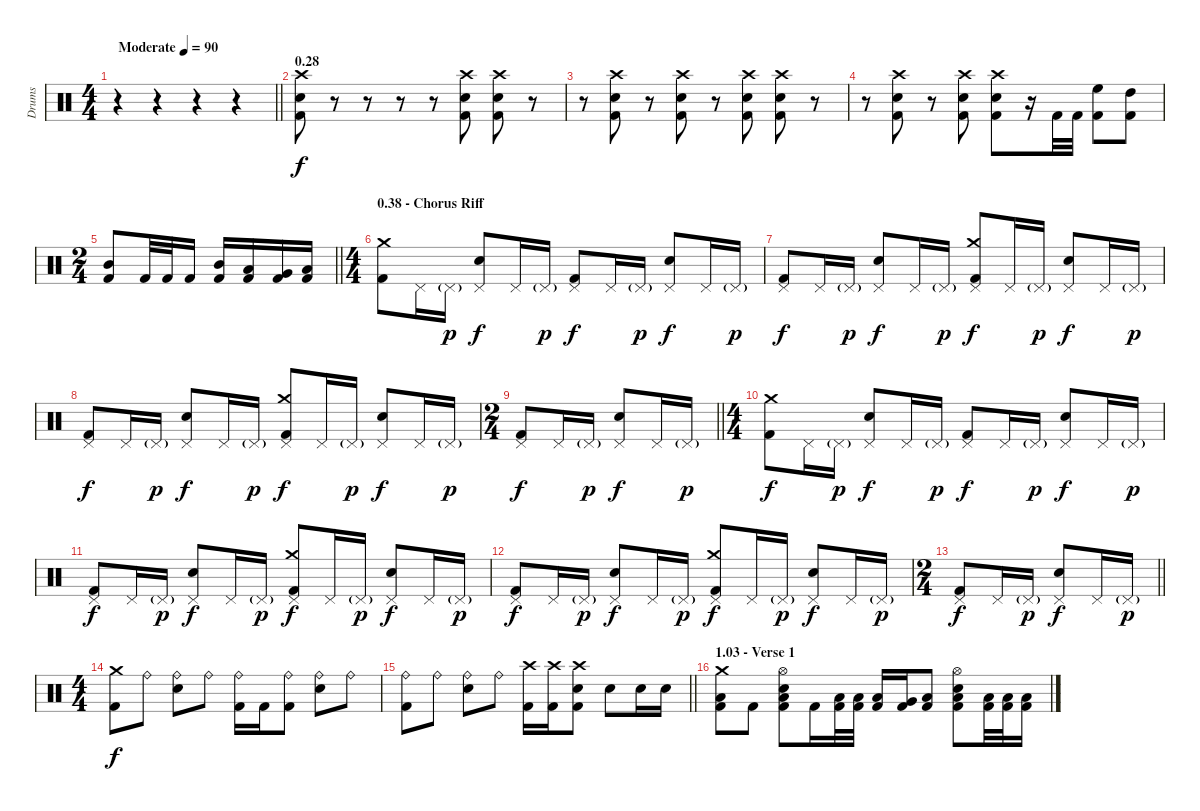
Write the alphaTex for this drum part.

\track ("Drums" "Drums") {instrument percussion}
\staff {score}
\articulation defaults
\ts (4 4)
\tempo (90 "Moderate")
\clef neutral
\barLineRight lightlight
\ks c
r.4{dy f} r.4 r.4 r.4 |
\section ("" "0.28")
("Crash high (hit)" "Electric Snare (hit)" "Kick (hit) 2").8 r.8 r.8 r.8 r.8 ("Crash high (hit)" "Electric Snare (hit)" "Kick (hit) 2").8 ("Crash high (hit)" "Electric Snare (hit)" "Kick (hit) 2").8 r.8 |
r.8 ("Crash high (hit)" "Electric Snare (hit)" "Kick (hit) 2").8 r.8 ("Crash high (hit)" "Electric Snare (hit)" "Kick (hit) 2").8 r.8 ("Crash high (hit)" "Electric Snare (hit)" "Kick (hit) 2").8 ("Crash high (hit)" "Electric Snare (hit)" "Kick (hit) 2").8 r.8 |
r.8 ("Crash high (hit)" "Electric Snare (hit)" "Kick (hit) 2").8 r.8 ("Crash high (hit)" "Electric Snare (hit)" "Kick (hit) 2").8 ("Crash high (hit)" "Electric Snare (hit)" "Kick (hit) 2").8 r.16 "Kick (hit) 2".32 "Kick (hit) 2".32 ("High Floor Tom (hit)" "Kick (hit) 2").8 ("High Tom (hit)" "Kick (hit) 2").8 |
\ts (2 4)
\barLineRight lightlight
("Mid Tom (hit)" "Kick (hit) 2").8 "Kick (hit) 2".32 "Kick (hit) 2".32 "Kick (hit) 2".16 ("Mid Tom (hit)" "Kick (hit) 2").16 ("Low Tom (hit)" "Kick (hit) 2").16 ("Very Low Tom (hit)" "Kick (hit) 2").16 ("Low Floor Tom (hit)" "Kick (hit) 2").16 |
\ts (4 4)
\section ("" "0.38 - Chorus Riff")
("Crash medium (hit)" "Kick (hit) 2").8 "Pedal Hi-Hat (hit)".16 "Pedal Hi-Hat (hit)"{g}.16{dy p} ("Pedal Hi-Hat (hit)" "Electric Snare (hit)").8{dy f} "Pedal Hi-Hat (hit)".16 "Pedal Hi-Hat (hit)"{g}.16{dy p} ("Pedal Hi-Hat (hit)" "Kick (hit) 2").8{dy f} "Pedal Hi-Hat (hit)".16 "Pedal Hi-Hat (hit)"{g}.16{dy p} ("Pedal Hi-Hat (hit)" "Electric Snare (hit)").8{dy f} "Pedal Hi-Hat (hit)".16 "Pedal Hi-Hat (hit)"{g}.16{dy p} |
("Pedal Hi-Hat (hit)" "Kick (hit) 2").8{dy f} "Pedal Hi-Hat (hit)".16 "Pedal Hi-Hat (hit)"{g}.16{dy p} ("Pedal Hi-Hat (hit)" "Electric Snare (hit)").8{dy f} "Pedal Hi-Hat (hit)".16 "Pedal Hi-Hat (hit)"{g}.16{dy p} ("Crash medium (hit)" "Pedal Hi-Hat (hit)" "Kick (hit) 2").8{dy f} "Pedal Hi-Hat (hit)".16 "Pedal Hi-Hat (hit)"{g}.16{dy p} ("Pedal Hi-Hat (hit)" "Electric Snare (hit)").8{dy f} "Pedal Hi-Hat (hit)".16 "Pedal Hi-Hat (hit)"{g}.16{dy p} |
("Pedal Hi-Hat (hit)" "Kick (hit) 2").8{dy f} "Pedal Hi-Hat (hit)".16 "Pedal Hi-Hat (hit)"{g}.16{dy p} ("Pedal Hi-Hat (hit)" "Electric Snare (hit)").8{dy f} "Pedal Hi-Hat (hit)".16 "Pedal Hi-Hat (hit)"{g}.16{dy p} ("Crash medium (hit)" "Pedal Hi-Hat (hit)" "Kick (hit) 2").8{dy f} "Pedal Hi-Hat (hit)".16 "Pedal Hi-Hat (hit)"{g}.16{dy p} ("Pedal Hi-Hat (hit)" "Electric Snare (hit)").8{dy f} "Pedal Hi-Hat (hit)".16 "Pedal Hi-Hat (hit)"{g}.16{dy p} |
\ts (2 4)
\barLineRight lightlight
("Pedal Hi-Hat (hit)" "Kick (hit) 2").8{dy f} "Pedal Hi-Hat (hit)".16 "Pedal Hi-Hat (hit)"{g}.16{dy p} ("Pedal Hi-Hat (hit)" "Electric Snare (hit)").8{dy f} "Pedal Hi-Hat (hit)".16 "Pedal Hi-Hat (hit)"{g}.16{dy p} |
\ts (4 4)
("Crash medium (hit)" "Kick (hit) 2").8{dy f} "Pedal Hi-Hat (hit)".16 "Pedal Hi-Hat (hit)"{g}.16{dy p} ("Pedal Hi-Hat (hit)" "Electric Snare (hit)").8{dy f} "Pedal Hi-Hat (hit)".16 "Pedal Hi-Hat (hit)"{g}.16{dy p} ("Pedal Hi-Hat (hit)" "Kick (hit) 2").8{dy f} "Pedal Hi-Hat (hit)".16 "Pedal Hi-Hat (hit)"{g}.16{dy p} ("Pedal Hi-Hat (hit)" "Electric Snare (hit)").8{dy f} "Pedal Hi-Hat (hit)".16 "Pedal Hi-Hat (hit)"{g}.16{dy p} |
("Pedal Hi-Hat (hit)" "Kick (hit) 2").8{dy f} "Pedal Hi-Hat (hit)".16 "Pedal Hi-Hat (hit)"{g}.16{dy p} ("Pedal Hi-Hat (hit)" "Electric Snare (hit)").8{dy f} "Pedal Hi-Hat (hit)".16 "Pedal Hi-Hat (hit)"{g}.16{dy p} ("Crash medium (hit)" "Pedal Hi-Hat (hit)" "Kick (hit) 2").8{dy f} "Pedal Hi-Hat (hit)".16 "Pedal Hi-Hat (hit)"{g}.16{dy p} ("Pedal Hi-Hat (hit)" "Electric Snare (hit)").8{dy f} "Pedal Hi-Hat (hit)".16 "Pedal Hi-Hat (hit)"{g}.16{dy p} |
("Pedal Hi-Hat (hit)" "Kick (hit) 2").8{dy f} "Pedal Hi-Hat (hit)".16 "Pedal Hi-Hat (hit)"{g}.16{dy p} ("Pedal Hi-Hat (hit)" "Electric Snare (hit)").8{dy f} "Pedal Hi-Hat (hit)".16 "Pedal Hi-Hat (hit)"{g}.16{dy p} ("Crash medium (hit)" "Pedal Hi-Hat (hit)" "Kick (hit) 2").8{dy f} "Pedal Hi-Hat (hit)".16 "Pedal Hi-Hat (hit)"{g}.16{dy p} ("Pedal Hi-Hat (hit)" "Electric Snare (hit)").8{dy f} "Pedal Hi-Hat (hit)".16 "Pedal Hi-Hat (hit)"{g}.16{dy p} |
\ts (2 4)
\barLineRight lightlight
("Pedal Hi-Hat (hit)" "Kick (hit) 2").8{dy f} "Pedal Hi-Hat (hit)".16 "Pedal Hi-Hat (hit)"{g}.16{dy p} ("Pedal Hi-Hat (hit)" "Electric Snare (hit)").8{dy f} "Pedal Hi-Hat (hit)".16 "Pedal Hi-Hat (hit)"{g}.16{dy p} |
\ts (4 4)
("Crash medium (hit)" "Kick (hit) 2").8{dy f} "Ride (bell)".8 ("Ride (bell)" "Electric Snare (hit)").8 "Ride (bell)".8 ("Ride (bell)" "Kick (hit) 2").16 "Kick (hit) 2".16 ("Ride (bell)" "Kick (hit) 2").8 ("Ride (bell)" "Electric Snare (hit)").8 "Ride (bell)".8 |
\barLineRight lightlight
("Ride (bell)" "Kick (hit) 2").8 "Ride (bell)".8 ("Ride (bell)" "Electric Snare (hit)").8 "Ride (bell)".8 ("Crash high (hit)" "Kick (hit) 2").16 ("Crash high (hit)" "Kick (hit) 2").16 ("Crash high (hit)" "Electric Snare (hit)" "Kick (hit) 2").8 "Electric Snare (hit)".8 "Electric Snare (hit)".16 "Electric Snare (hit)".16 |
\section ("" "1.03 - Verse 1")
("Crash medium (hit)" "Low Floor Tom (hit)" "Kick (hit) 2").8 "Kick (hit) 2".8 ("Hi-Hat (open)" "Electric Snare (hit)" "Low Floor Tom (hit)" "Kick (hit) 2").8 "Kick (hit) 2".16 ("Low Tom (hit)" "Kick (hit) 2").32 ("Low Tom (hit)" "Kick (hit) 2").32 ("Low Tom (hit)" "Kick (hit) 2").16 ("Very Low Tom (hit)" "Kick (hit) 2").16 ("Low Floor Tom (hit)" "Kick (hit) 2").8 ("Hi-Hat (open)" "Electric Snare (hit)" "Low Floor Tom (hit)" "Kick (hit) 2").8 ("Low Tom (hit)" "Kick (hit) 2").32 ("Low Tom (hit)" "Kick (hit) 2").32 ("Low Tom (hit)" "Kick (hit) 2").16
